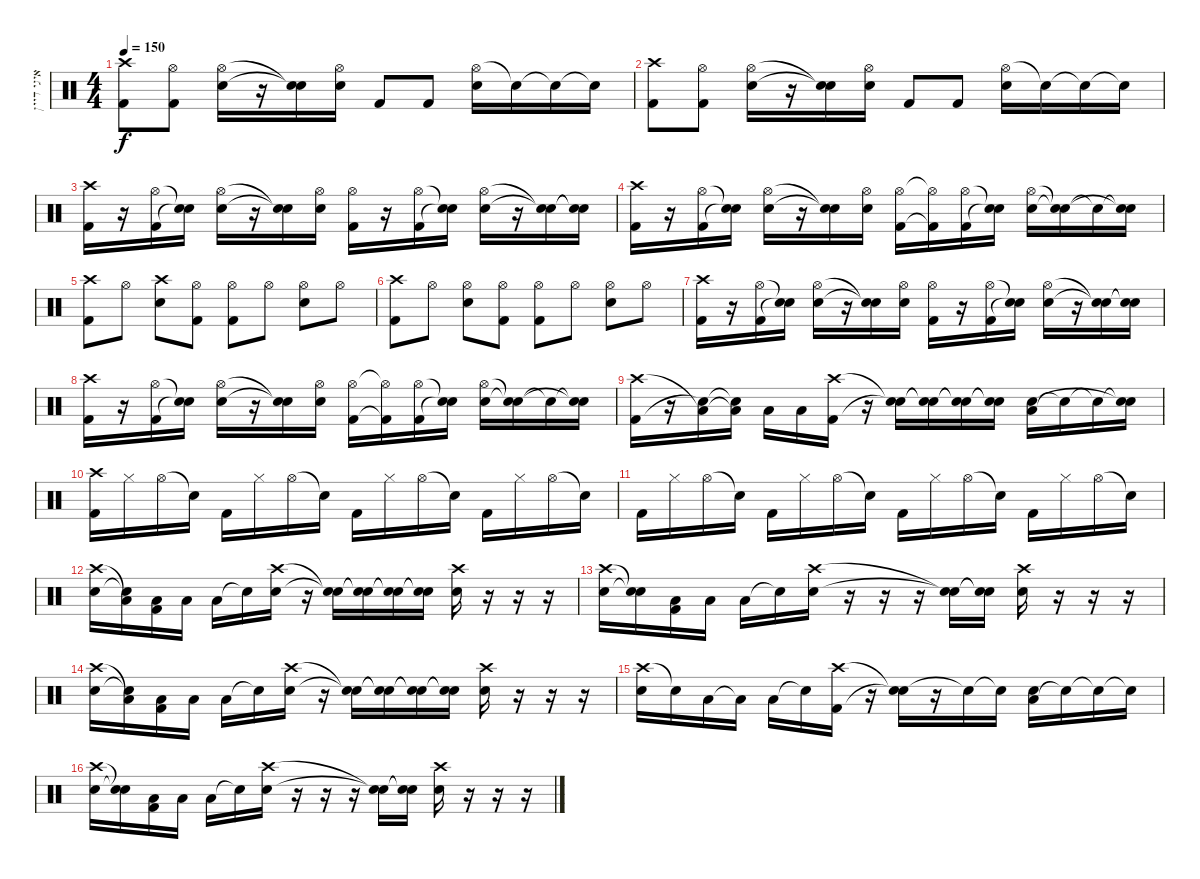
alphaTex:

\track ("איגי דיין" "איגי דיין") {instrument percussion}
\staff {score}
\articulation defaults
\ts (4 4)
\tempo 150
\clef neutral
\ks c
("Crash high (hit)" "Kick (hit) 2").8{dy f} ("Hi-Hat (open)" "Kick (hit) 2").8 ("Hi-Hat (open)" "Electric Snare (hit)").16 r.16 ("Snare (hit)"{t} "Snare (hit)"{t}).16 ("Hi-Hat (open)" "Electric Snare (hit)").16 "Kick (hit) 2".8 "Kick (hit) 2".8 ("Hi-Hat (open)" "Electric Snare (hit)").16 "Snare (hit)"{t}.16 "Snare (hit)"{t}.16 "Snare (hit)"{t}.16 |
("Crash high (hit)" "Kick (hit) 2").8 ("Hi-Hat (open)" "Kick (hit) 2").8 ("Hi-Hat (open)" "Electric Snare (hit)").16 r.16 ("Snare (hit)"{t} "Snare (hit)"{t}).16 ("Hi-Hat (open)" "Electric Snare (hit)").16 "Kick (hit) 2".8 "Kick (hit) 2".8 ("Hi-Hat (open)" "Electric Snare (hit)").16 "Snare (hit)"{t}.16 "Snare (hit)"{t}.16 "Snare (hit)"{t}.16 |
("Crash high (hit)" "Kick (hit) 2").16 r.16 ("Hi-Hat (open)" "Kick (hit) 2").16 ("Snare (hit)"{t} "Snare (hit)"{t}).16 ("Hi-Hat (open)" "Electric Snare (hit)").16 r.16 ("Snare (hit)"{t} "Snare (hit)"{t}).16 ("Electric Snare (hit)" "Hi-Hat (open)").16 ("Hi-Hat (open)" "Kick (hit) 2").16 r.16 ("Hi-Hat (open)" "Kick (hit) 2").16 ("Snare (hit)"{t} "Snare (hit)"{t}).16 ("Hi-Hat (open)" "Electric Snare (hit)").16 r.16 ("Snare (hit)"{t} "Snare (hit)"{t}).16 ("Snare (hit)"{t} "Snare (hit)"{t}).16 |
("Crash high (hit)" "Kick (hit) 2").16 r.16 ("Hi-Hat (open)" "Kick (hit) 2").16 ("Snare (hit)"{t} "Snare (hit)"{t}).16 ("Hi-Hat (open)" "Electric Snare (hit)").16 r.16 ("Snare (hit)"{t} "Snare (hit)"{t}).16 ("Electric Snare (hit)" "Hi-Hat (open)").16 ("Hi-Hat (open)" "Kick (hit) 2").16 ("Hi-Hat (open)"{t} "Kick (hit) 2"{t}).16 ("Hi-Hat (open)" "Kick (hit) 2").16 ("Snare (hit)"{t} "Snare (hit)"{t}).16 ("Hi-Hat (open)" "Electric Snare (hit)").16 ("Snare (hit)"{t} "Snare (hit)"{t}).16 "Snare (hit)"{t}.16 ("Snare (hit)"{t} "Snare (hit)"{t}).16 |
("Crash high (hit)" "Kick (hit) 2").8 "Hi-Hat (open)".8 ("Crash high (hit)" "Electric Snare (hit)").8 ("Hi-Hat (open)" "Kick (hit) 2").8 ("Hi-Hat (open)" "Kick (hit) 2").8 "Hi-Hat (open)".8 ("Hi-Hat (open)" "Electric Snare (hit)").8 "Hi-Hat (open)".8 |
("Crash high (hit)" "Kick (hit) 2").8 "Hi-Hat (open)".8 ("Hi-Hat (open)" "Electric Snare (hit)").8 ("Hi-Hat (open)" "Kick (hit) 2").8 ("Hi-Hat (open)" "Kick (hit) 2").8 "Hi-Hat (open)".8 ("Hi-Hat (open)" "Electric Snare (hit)").8 "Hi-Hat (open)".8 |
("Crash high (hit)" "Kick (hit) 2").16 r.16 ("Hi-Hat (open)" "Kick (hit) 2").16 ("Snare (hit)"{t} "Snare (hit)"{t}).16 ("Hi-Hat (open)" "Electric Snare (hit)").16 r.16 ("Snare (hit)"{t} "Snare (hit)"{t}).16 ("Electric Snare (hit)" "Hi-Hat (open)").16 ("Hi-Hat (open)" "Kick (hit) 2").16 r.16 ("Hi-Hat (open)" "Kick (hit) 2").16 ("Snare (hit)"{t} "Snare (hit)"{t}).16 ("Hi-Hat (open)" "Electric Snare (hit)").16 r.16 ("Snare (hit)"{t} "Snare (hit)"{t}).16 ("Snare (hit)"{t} "Snare (hit)"{t}).16 |
("Crash high (hit)" "Kick (hit) 2").16 r.16 ("Hi-Hat (open)" "Kick (hit) 2").16 ("Snare (hit)"{t} "Snare (hit)"{t}).16 ("Hi-Hat (open)" "Electric Snare (hit)").16 r.16 ("Snare (hit)"{t} "Snare (hit)"{t}).16 ("Electric Snare (hit)" "Hi-Hat (open)").16 ("Hi-Hat (open)" "Kick (hit) 2").16 ("Hi-Hat (open)"{t} "Kick (hit) 2"{t}).16 ("Hi-Hat (open)" "Kick (hit) 2").16 ("Snare (hit)"{t} "Snare (hit)"{t}).16 ("Hi-Hat (open)" "Electric Snare (hit)").16 ("Snare (hit)"{t} "Snare (hit)"{t}).16 "Snare (hit)"{t}.16 ("Snare (hit)"{t} "Snare (hit)"{t}).16 |
("Crash high (hit)" "Kick (hit) 2").16 r.16 ("Low Tom (hit)"{t} "Snare (hit)"{t}).16 ("Low Tom (hit)"{t} "Snare (hit)"{t}).16 "Low Tom (hit)".16 "Low Floor Tom (hit)".16 ("Crash high (hit)" "Kick (hit) 2").16 r.16 ("Snare (hit)"{t} "Snare (hit)"{t}).16 ("Snare (hit)"{t} "Snare (hit)"{t}).16 ("Snare (hit)"{t} "Snare (hit)"{t}).16 ("Snare (hit)"{t} "Snare (hit)"{t}).16 ("Low Floor Tom (hit)" "Electric Snare (hit)").16 "Snare (hit)"{t}.16 "Snare (hit)"{t}.16 ("Snare (hit)"{t} "Snare (hit)"{t}).16 |
("Crash high (hit)" "Kick (hit) 2").16 "Hi-Hat (closed)".16 "Hi-Hat (open)".16 "Snare (hit)"{t}.16 "Kick (hit) 2".16 "Hi-Hat (closed)".16 "Hi-Hat (open)".16 "Snare (hit)"{t}.16 "Kick (hit) 2".16 "Hi-Hat (closed)".16 "Hi-Hat (open)".16 "Snare (hit)"{t}.16 "Kick (hit) 2".16 "Hi-Hat (closed)".16 "Hi-Hat (open)".16 "Snare (hit)"{t}.16 |
"Kick (hit) 2".16 "Hi-Hat (closed)".16 "Hi-Hat (open)".16 "Snare (hit)"{t}.16 "Kick (hit) 2".16 "Hi-Hat (closed)".16 "Hi-Hat (open)".16 "Snare (hit)"{t}.16 "Kick (hit) 2".16 "Hi-Hat (closed)".16 "Hi-Hat (open)".16 "Snare (hit)"{t}.16 "Kick (hit) 2".16 "Hi-Hat (closed)".16 "Hi-Hat (open)".16 "Snare (hit)"{t}.16 |
("Crash high (hit)" "Electric Snare (hit)").16 ("Low Tom (hit)"{t} "Snare (hit)"{t}).16 ("Low Tom (hit)" "Kick (hit) 2").16 "Low Floor Tom (hit)".16 "Low Floor Tom (hit)".16 "Snare (hit)"{t}.16 ("Crash high (hit)" "Electric Snare (hit)").16 r.16 ("Snare (hit)"{t} "Snare (hit)"{t}).16 ("Snare (hit)"{t} "Snare (hit)"{t}).16 ("Snare (hit)"{t} "Snare (hit)"{t}).16 ("Snare (hit)"{t} "Snare (hit)"{t}).16 ("Crash high (hit)" "Electric Snare (hit)").16 r.16 r.16 r.16 |
("Crash high (hit)" "Electric Snare (hit)").16 ("Snare (hit)"{t} "Snare (hit)"{t}).16 ("Low Tom (hit)" "Kick (hit) 2").16 "Low Floor Tom (hit)".16 "Low Floor Tom (hit)".16 "Snare (hit)"{t}.16 ("Crash high (hit)" "Electric Snare (hit)").16 r.16 r.16 r.16 ("Snare (hit)"{t} "Snare (hit)"{t}).16 ("Snare (hit)"{t} "Snare (hit)"{t}).16 ("Crash high (hit)" "Electric Snare (hit)").16 r.16 r.16 r.16 |
("Crash high (hit)" "Electric Snare (hit)").16 ("Low Tom (hit)"{t} "Snare (hit)"{t}).16 ("Low Tom (hit)" "Kick (hit) 2").16 "Low Floor Tom (hit)".16 "Low Floor Tom (hit)".16 "Snare (hit)"{t}.16 ("Crash high (hit)" "Electric Snare (hit)").16 r.16 ("Snare (hit)"{t} "Snare (hit)"{t}).16 ("Snare (hit)"{t} "Snare (hit)"{t}).16 ("Snare (hit)"{t} "Snare (hit)"{t}).16 ("Snare (hit)"{t} "Snare (hit)"{t}).16 ("Crash high (hit)" "Electric Snare (hit)").16 r.16 r.16 r.16 |
("Crash high (hit)" "Electric Snare (hit)").16 "Snare (hit)"{t}.16 "Low Floor Tom (hit)".16 "Low Tom (hit)"{t}.16 "Low Tom (hit)".16 "Snare (hit)"{t}.16 ("Crash high (hit)" "Kick (hit) 2").16 r.16 ("Snare (hit)"{t} "Snare (hit)"{t}).16 r.16 "Snare (hit)"{t}.16 "Snare (hit)"{t}.16 ("Low Floor Tom (hit)" "Electric Snare (hit)").16 "Snare (hit)"{t}.16 "Snare (hit)"{t}.16 "Snare (hit)"{t}.16 |
("Crash high (hit)" "Electric Snare (hit)").16 ("Snare (hit)"{t} "Snare (hit)"{t}).16 ("Low Tom (hit)" "Kick (hit) 2").16 "Low Floor Tom (hit)".16 "Low Floor Tom (hit)".16 "Snare (hit)"{t}.16 ("Crash high (hit)" "Electric Snare (hit)").16 r.16 r.16 r.16 ("Snare (hit)"{t} "Snare (hit)"{t}).16 ("Snare (hit)"{t} "Snare (hit)"{t}).16 ("Crash high (hit)" "Electric Snare (hit)").16 r.16 r.16 r.16
